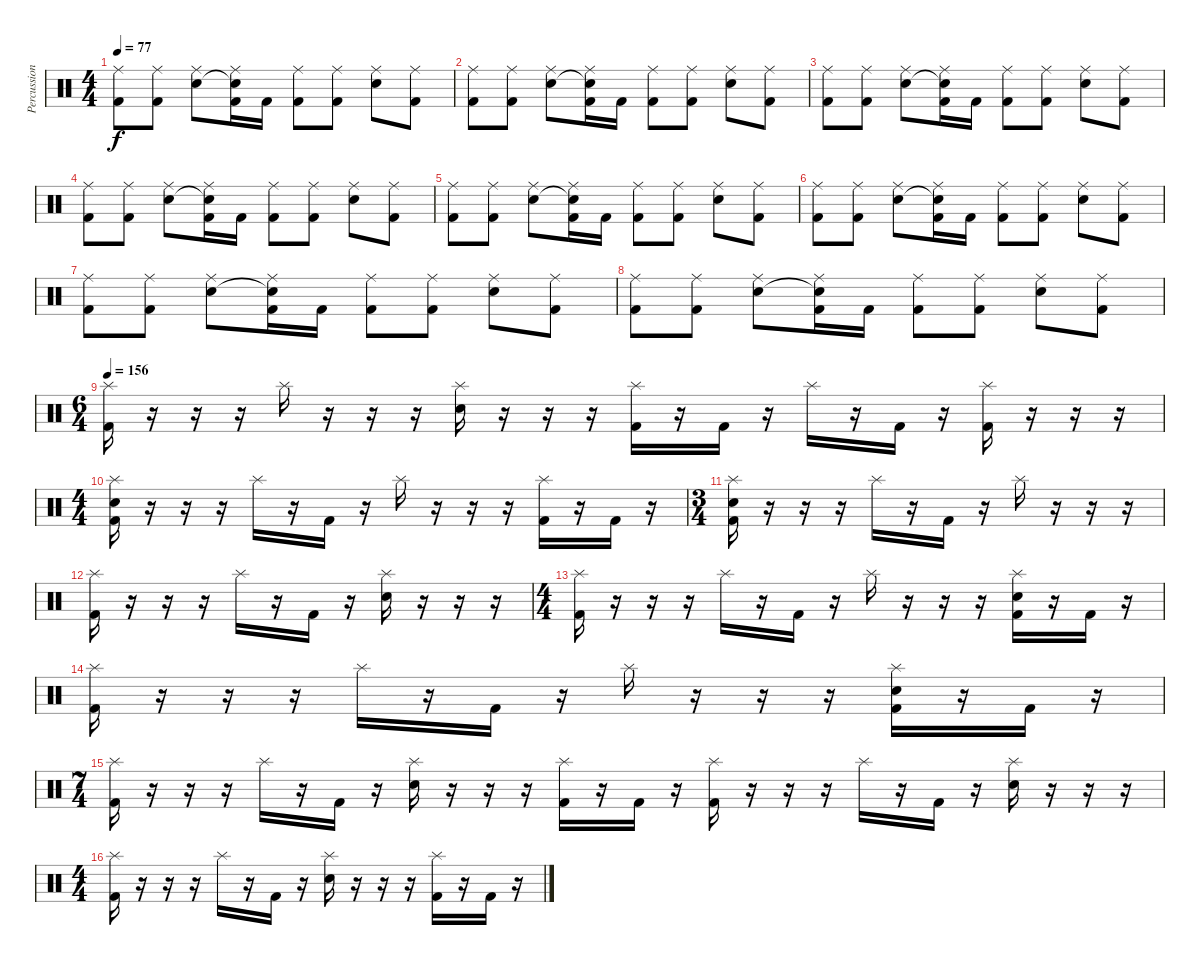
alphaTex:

\track ("Percussion" "Percussion") {instrument percussion}
\staff {score}
\articulation defaults
\ts (4 4)
\tempo 77
\clef neutral
\ks c
("Ride (middle)" "Kick (hit) 2").8{dy f} ("Ride (middle)" "Kick (hit) 2").8 ("Ride (middle)" "Electric Snare (hit)").8 ("Ride (middle)" "Snare (hit)"{t} "Kick (hit) 2").16 "Kick (hit) 2".16 ("Ride (middle)" "Kick (hit) 2").8 ("Ride (middle)" "Kick (hit) 2").8 ("Ride (middle)" "Electric Snare (hit)").8 ("Ride (middle)" "Kick (hit) 2").8 |
("Ride (middle)" "Kick (hit) 2").8 ("Ride (middle)" "Kick (hit) 2").8 ("Ride (middle)" "Electric Snare (hit)").8 ("Ride (middle)" "Snare (hit)"{t} "Kick (hit) 2").16 "Kick (hit) 2".16 ("Ride (middle)" "Kick (hit) 2").8 ("Ride (middle)" "Kick (hit) 2").8 ("Ride (middle)" "Electric Snare (hit)").8 ("Ride (middle)" "Kick (hit) 2").8 |
("Ride (middle)" "Kick (hit) 2").8 ("Ride (middle)" "Kick (hit) 2").8 ("Ride (middle)" "Electric Snare (hit)").8 ("Ride (middle)" "Snare (hit)"{t} "Kick (hit) 2").16 "Kick (hit) 2".16 ("Ride (middle)" "Kick (hit) 2").8 ("Ride (middle)" "Kick (hit) 2").8 ("Ride (middle)" "Electric Snare (hit)").8 ("Ride (middle)" "Kick (hit) 2").8 |
("Ride (middle)" "Kick (hit) 2").8 ("Ride (middle)" "Kick (hit) 2").8 ("Ride (middle)" "Electric Snare (hit)").8 ("Ride (middle)" "Snare (hit)"{t} "Kick (hit) 2").16 "Kick (hit) 2".16 ("Ride (middle)" "Kick (hit) 2").8 ("Ride (middle)" "Kick (hit) 2").8 ("Ride (middle)" "Electric Snare (hit)").8 ("Ride (middle)" "Kick (hit) 2").8 |
("Ride (middle)" "Kick (hit) 2").8 ("Ride (middle)" "Kick (hit) 2").8 ("Ride (middle)" "Electric Snare (hit)").8 ("Ride (middle)" "Snare (hit)"{t} "Kick (hit) 2").16 "Kick (hit) 2".16 ("Ride (middle)" "Kick (hit) 2").8 ("Ride (middle)" "Kick (hit) 2").8 ("Ride (middle)" "Electric Snare (hit)").8 ("Ride (middle)" "Kick (hit) 2").8 |
("Ride (middle)" "Kick (hit) 2").8 ("Ride (middle)" "Kick (hit) 2").8 ("Ride (middle)" "Electric Snare (hit)").8 ("Ride (middle)" "Snare (hit)"{t} "Kick (hit) 2").16 "Kick (hit) 2".16 ("Ride (middle)" "Kick (hit) 2").8 ("Ride (middle)" "Kick (hit) 2").8 ("Ride (middle)" "Electric Snare (hit)").8 ("Ride (middle)" "Kick (hit) 2").8 |
("Ride (middle)" "Kick (hit) 2").8 ("Ride (middle)" "Kick (hit) 2").8 ("Ride (middle)" "Electric Snare (hit)").8 ("Ride (middle)" "Snare (hit)"{t} "Kick (hit) 2").16 "Kick (hit) 2".16 ("Ride (middle)" "Kick (hit) 2").8 ("Ride (middle)" "Kick (hit) 2").8 ("Ride (middle)" "Electric Snare (hit)").8 ("Ride (middle)" "Kick (hit) 2").8 |
("Ride (middle)" "Kick (hit) 2").8 ("Ride (middle)" "Kick (hit) 2").8 ("Ride (middle)" "Electric Snare (hit)").8 ("Ride (middle)" "Snare (hit)"{t} "Kick (hit) 2").16 "Kick (hit) 2".16 ("Ride (middle)" "Kick (hit) 2").8 ("Ride (middle)" "Kick (hit) 2").8 ("Ride (middle)" "Electric Snare (hit)").8 ("Ride (middle)" "Kick (hit) 2").8 |
\ts (6 4)
\tempo 156
("Splash (hit)" "Kick (hit) 2").16 r.16 r.16 r.16 "Splash (hit)".16 r.16 r.16 r.16 ("Splash (hit)" "Electric Snare (hit)").16 r.16 r.16 r.16 ("Splash (hit)" "Kick (hit) 2").16 r.16 "Kick (hit) 2".16 r.16 "Splash (hit)".16 r.16 "Kick (hit) 2".16 r.16 ("Splash (hit)" "Kick (hit) 2").16 r.16 r.16 r.16 |
\ts (4 4)
("Splash (hit)" "Electric Snare (hit)" "Kick (hit) 2").16 r.16 r.16 r.16 "Splash (hit)".16 r.16 "Kick (hit) 2".16 r.16 "Splash (hit)".16 r.16 r.16 r.16 ("Splash (hit)" "Kick (hit) 2").16 r.16 "Kick (hit) 2".16 r.16 |
\ts (3 4)
("Splash (hit)" "Electric Snare (hit)" "Kick (hit) 2").16 r.16 r.16 r.16 "Splash (hit)".16 r.16 "Kick (hit) 2".16 r.16 "Splash (hit)".16 r.16 r.16 r.16 |
("Splash (hit)" "Kick (hit) 2").16 r.16 r.16 r.16 "Splash (hit)".16 r.16 "Kick (hit) 2".16 r.16 ("Splash (hit)" "Electric Snare (hit)").16 r.16 r.16 r.16 |
\ts (4 4)
("Splash (hit)" "Kick (hit) 2").16 r.16 r.16 r.16 "Splash (hit)".16 r.16 "Kick (hit) 2".16 r.16 "Splash (hit)".16 r.16 r.16 r.16 ("Splash (hit)" "Electric Snare (hit)" "Kick (hit) 2").16 r.16 "Kick (hit) 2".16 r.16 |
("Splash (hit)" "Kick (hit) 2").16 r.16 r.16 r.16 "Splash (hit)".16 r.16 "Kick (hit) 2".16 r.16 "Splash (hit)".16 r.16 r.16 r.16 ("Splash (hit)" "Electric Snare (hit)" "Kick (hit) 2").16 r.16 "Kick (hit) 2".16 r.16 |
\ts (7 4)
("Splash (hit)" "Kick (hit) 2").16 r.16 r.16 r.16 "Splash (hit)".16 r.16 "Kick (hit) 2".16 r.16 ("Splash (hit)" "Electric Snare (hit)").16 r.16 r.16 r.16 ("Splash (hit)" "Kick (hit) 2").16 r.16 "Kick (hit) 2".16 r.16 ("Splash (hit)" "Kick (hit) 2").16 r.16 r.16 r.16 "Splash (hit)".16 r.16 "Kick (hit) 2".16 r.16 ("Splash (hit)" "Electric Snare (hit)").16 r.16 r.16 r.16 |
\ts (4 4)
("Splash (hit)" "Kick (hit) 2").16 r.16 r.16 r.16 "Splash (hit)".16 r.16 "Kick (hit) 2".16 r.16 ("Splash (hit)" "Electric Snare (hit)").16 r.16 r.16 r.16 ("Splash (hit)" "Kick (hit) 2").16 r.16 "Kick (hit) 2".16 r.16
